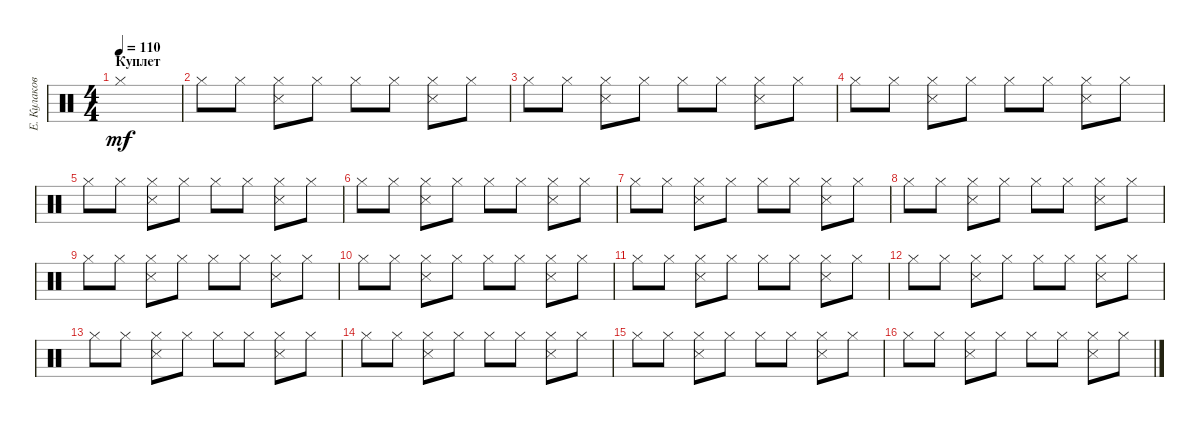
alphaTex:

\track ("Е. Кулаков" "Е. Кулаков") {instrument percussion}
\staff {score}
\articulation defaults
\ts (4 4)
\section ("" "Куплет")
\tempo 110
\clef neutral
\ks c "Hi-Hat (closed)".1{dy mf}
|
"Hi-Hat (closed)".8 "Hi-Hat (closed)".8 ("Hi-Hat (closed)" "Snare (side stick) 3").8 "Hi-Hat (closed)".8 "Hi-Hat (closed)".8 "Hi-Hat (closed)".8 ("Hi-Hat (closed)" "Snare (side stick) 3").8 "Hi-Hat (closed)".8 |
"Hi-Hat (closed)".8 "Hi-Hat (closed)".8 ("Hi-Hat (closed)" "Snare (side stick) 3").8 "Hi-Hat (closed)".8 "Hi-Hat (closed)".8 "Hi-Hat (closed)".8 ("Hi-Hat (closed)" "Snare (side stick) 3").8 "Hi-Hat (closed)".8 |
"Hi-Hat (closed)".8 "Hi-Hat (closed)".8 ("Hi-Hat (closed)" "Snare (side stick) 3").8 "Hi-Hat (closed)".8 "Hi-Hat (closed)".8 "Hi-Hat (closed)".8 ("Hi-Hat (closed)" "Snare (side stick) 3").8 "Hi-Hat (closed)".8 |
"Hi-Hat (closed)".8 "Hi-Hat (closed)".8 ("Hi-Hat (closed)" "Snare (side stick) 3").8 "Hi-Hat (closed)".8 "Hi-Hat (closed)".8 "Hi-Hat (closed)".8 ("Hi-Hat (closed)" "Snare (side stick) 3").8 "Hi-Hat (closed)".8 |
"Hi-Hat (closed)".8 "Hi-Hat (closed)".8 ("Hi-Hat (closed)" "Snare (side stick) 3").8 "Hi-Hat (closed)".8 "Hi-Hat (closed)".8 "Hi-Hat (closed)".8 ("Hi-Hat (closed)" "Snare (side stick) 3").8 "Hi-Hat (closed)".8 |
"Hi-Hat (closed)".8 "Hi-Hat (closed)".8 ("Hi-Hat (closed)" "Snare (side stick) 3").8 "Hi-Hat (closed)".8 "Hi-Hat (closed)".8 "Hi-Hat (closed)".8 ("Hi-Hat (closed)" "Snare (side stick) 3").8 "Hi-Hat (closed)".8 |
"Hi-Hat (closed)".8 "Hi-Hat (closed)".8 ("Hi-Hat (closed)" "Snare (side stick) 3").8 "Hi-Hat (closed)".8 "Hi-Hat (closed)".8 "Hi-Hat (closed)".8 ("Hi-Hat (closed)" "Snare (side stick) 3").8 "Hi-Hat (closed)".8 |
"Hi-Hat (closed)".8 "Hi-Hat (closed)".8 ("Hi-Hat (closed)" "Snare (side stick) 3").8 "Hi-Hat (closed)".8 "Hi-Hat (closed)".8 "Hi-Hat (closed)".8 ("Hi-Hat (closed)" "Snare (side stick) 3").8 "Hi-Hat (closed)".8 |
"Hi-Hat (closed)".8 "Hi-Hat (closed)".8 ("Hi-Hat (closed)" "Snare (side stick) 3").8 "Hi-Hat (closed)".8 "Hi-Hat (closed)".8 "Hi-Hat (closed)".8 ("Hi-Hat (closed)" "Snare (side stick) 3").8 "Hi-Hat (closed)".8 |
"Hi-Hat (closed)".8 "Hi-Hat (closed)".8 ("Hi-Hat (closed)" "Snare (side stick) 3").8 "Hi-Hat (closed)".8 "Hi-Hat (closed)".8 "Hi-Hat (closed)".8 ("Hi-Hat (closed)" "Snare (side stick) 3").8 "Hi-Hat (closed)".8 |
"Hi-Hat (closed)".8 "Hi-Hat (closed)".8 ("Hi-Hat (closed)" "Snare (side stick) 3").8 "Hi-Hat (closed)".8 "Hi-Hat (closed)".8 "Hi-Hat (closed)".8 ("Hi-Hat (closed)" "Snare (side stick) 3").8 "Hi-Hat (closed)".8 |
"Hi-Hat (closed)".8 "Hi-Hat (closed)".8 ("Hi-Hat (closed)" "Snare (side stick) 3").8 "Hi-Hat (closed)".8 "Hi-Hat (closed)".8 "Hi-Hat (closed)".8 ("Hi-Hat (closed)" "Snare (side stick) 3").8 "Hi-Hat (closed)".8 |
"Hi-Hat (closed)".8 "Hi-Hat (closed)".8 ("Hi-Hat (closed)" "Snare (side stick) 3").8 "Hi-Hat (closed)".8 "Hi-Hat (closed)".8 "Hi-Hat (closed)".8 ("Hi-Hat (closed)" "Snare (side stick) 3").8 "Hi-Hat (closed)".8 |
"Hi-Hat (closed)".8 "Hi-Hat (closed)".8 ("Hi-Hat (closed)" "Snare (side stick) 3").8 "Hi-Hat (closed)".8 "Hi-Hat (closed)".8 "Hi-Hat (closed)".8 ("Hi-Hat (closed)" "Snare (side stick) 3").8 "Hi-Hat (closed)".8 |
"Hi-Hat (closed)".8 "Hi-Hat (closed)".8 ("Hi-Hat (closed)" "Snare (side stick) 3").8 "Hi-Hat (closed)".8 "Hi-Hat (closed)".8 "Hi-Hat (closed)".8 ("Hi-Hat (closed)" "Snare (side stick) 3").8 "Hi-Hat (closed)".8
